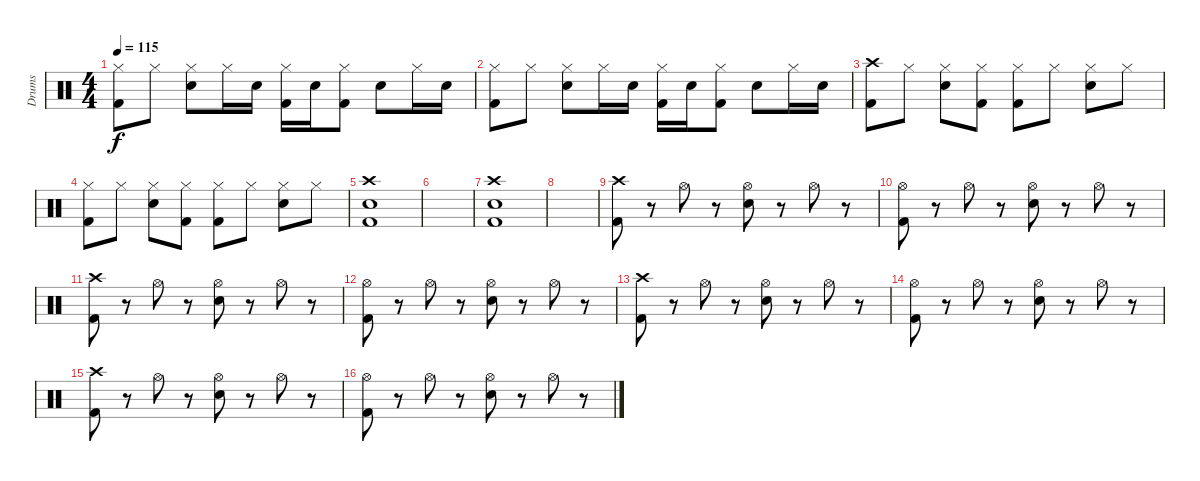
\track ("Drums" "Drums") {instrument percussion}
\staff {score}
\articulation defaults
\ts (4 4)
\tempo 115
\clef neutral
\ks c
("Hi-Hat (closed)" "Kick (hit) 2").8{dy f} "Hi-Hat (closed)".8 ("Hi-Hat (closed)" "Electric Snare (hit)").8 "Hi-Hat (closed)".16 "Electric Snare (hit)".16 ("Hi-Hat (closed)" "Kick (hit) 2").16 "Electric Snare (hit)".16 ("Hi-Hat (closed)" "Kick (hit) 2").8 "Electric Snare (hit)".8 "Hi-Hat (closed)".16 "Electric Snare (hit)".16 |
("Hi-Hat (closed)" "Kick (hit) 2").8 "Hi-Hat (closed)".8 ("Hi-Hat (closed)" "Electric Snare (hit)").8 "Hi-Hat (closed)".16 "Electric Snare (hit)".16 ("Hi-Hat (closed)" "Kick (hit) 2").16 "Electric Snare (hit)".16 ("Hi-Hat (closed)" "Kick (hit) 2").8 "Electric Snare (hit)".8 "Hi-Hat (closed)".16 "Electric Snare (hit)".16 |
("Crash high (hit)" "Kick (hit) 2").8 "Hi-Hat (closed)".8 ("Hi-Hat (closed)" "Electric Snare (hit)").8 ("Hi-Hat (closed)" "Kick (hit) 2").8 ("Hi-Hat (closed)" "Kick (hit) 2").8 "Hi-Hat (closed)".8 ("Hi-Hat (closed)" "Electric Snare (hit)").8 "Hi-Hat (closed)".8 |
("Hi-Hat (closed)" "Kick (hit) 2").8 "Hi-Hat (closed)".8 ("Hi-Hat (closed)" "Electric Snare (hit)").8 ("Hi-Hat (closed)" "Kick (hit) 2").8 ("Hi-Hat (closed)" "Kick (hit) 2").8 "Hi-Hat (closed)".8 ("Hi-Hat (closed)" "Electric Snare (hit)").8 "Hi-Hat (closed)".8 |
("Crash high (hit)" "Electric Snare (hit)" "Kick (hit) 2").1 |
|
("Crash high (hit)" "Kick (hit) 2" "Electric Snare (hit)").1 |
|
("Kick (hit) 2" "Crash high (hit)").8 r.8 "Hi-Hat (open)".8 r.8 ("Hi-Hat (open)" "Electric Snare (hit)").8 r.8 "Hi-Hat (open)".8 r.8 |
("Hi-Hat (open)" "Kick (hit) 2").8 r.8 "Hi-Hat (open)".8 r.8 ("Hi-Hat (open)" "Electric Snare (hit)").8 r.8 "Hi-Hat (open)".8 r.8 |
("Kick (hit) 2" "Crash high (hit)").8 r.8 "Hi-Hat (open)".8 r.8 ("Hi-Hat (open)" "Electric Snare (hit)").8 r.8 "Hi-Hat (open)".8 r.8 |
("Hi-Hat (open)" "Kick (hit) 2").8 r.8 "Hi-Hat (open)".8 r.8 ("Hi-Hat (open)" "Electric Snare (hit)").8 r.8 "Hi-Hat (open)".8 r.8 |
("Kick (hit) 2" "Crash high (hit)").8 r.8 "Hi-Hat (open)".8 r.8 ("Hi-Hat (open)" "Electric Snare (hit)").8 r.8 "Hi-Hat (open)".8 r.8 |
("Hi-Hat (open)" "Kick (hit) 2").8 r.8 "Hi-Hat (open)".8 r.8 ("Hi-Hat (open)" "Electric Snare (hit)").8 r.8 "Hi-Hat (open)".8 r.8 |
("Kick (hit) 2" "Crash high (hit)").8 r.8 "Hi-Hat (open)".8 r.8 ("Hi-Hat (open)" "Electric Snare (hit)").8 r.8 "Hi-Hat (open)".8 r.8 |
("Hi-Hat (open)" "Kick (hit) 2").8 r.8 "Hi-Hat (open)".8 r.8 ("Hi-Hat (open)" "Electric Snare (hit)").8 r.8 "Hi-Hat (open)".8 r.8
